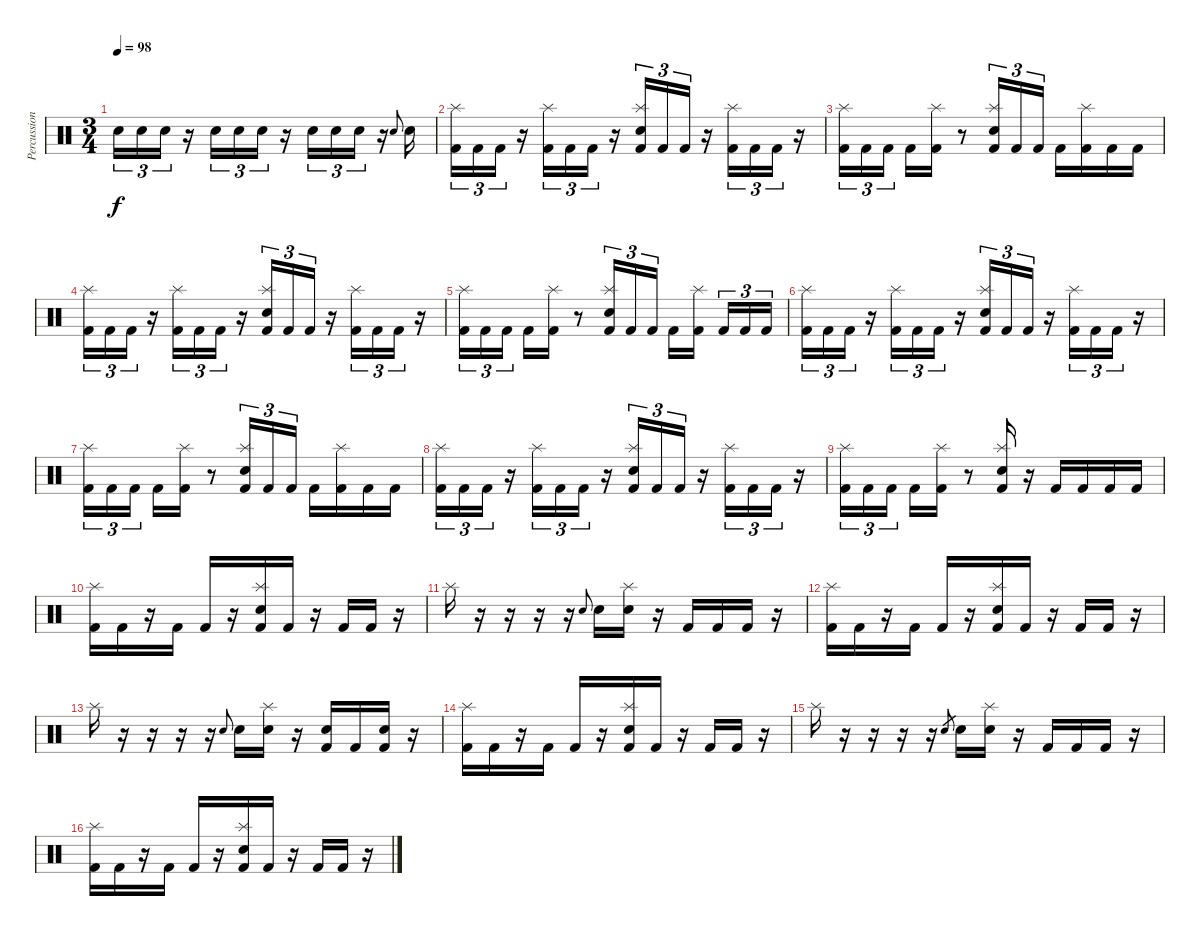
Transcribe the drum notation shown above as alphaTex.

\track ("Percussion" "Percussion") {instrument percussion}
\staff {score}
\articulation defaults
\ts (3 4)
\tempo 98
\clef neutral
\ks c "Snare (hit) 2".16{tu (3 2) dy f} "Snare (hit) 2".16{tu (3 2)} "Snare (hit) 2".16{tu (3 2)}
r.16 "Snare (hit) 2".16{tu (3 2)} "Snare (hit) 2".16{tu (3 2)} "Snare (hit) 2".16{tu (3 2)} r.16 "Snare (hit) 2".16{tu (3 2)} "Snare (hit) 2".16{tu (3 2)} "Snare (hit) 2".16{tu (3 2)} r.16 "Snare (hit) 2".8{gr onbeat} "Snare (hit) 2".16 |
("Splash (hit)" "Kick (hit) 2").16{tu (3 2)} "Kick (hit) 2".16{tu (3 2)} "Kick (hit) 2".16{tu (3 2)} r.16 ("Splash (hit)" "Kick (hit) 2").16{tu (3 2)} "Kick (hit) 2".16{tu (3 2)} "Kick (hit) 2".16{tu (3 2)} r.16 ("Splash (hit)" "Snare (hit) 2" "Kick (hit) 2").16{tu (3 2)} "Kick (hit) 2".16{tu (3 2)} "Kick (hit) 2".16{tu (3 2)} r.16 ("Splash (hit)" "Kick (hit) 2").16{tu (3 2)} "Kick (hit) 2".16{tu (3 2)} "Kick (hit) 2".16{tu (3 2)} r.16 |
("Splash (hit)" "Kick (hit) 2").16{tu (3 2)} "Kick (hit) 2".16{tu (3 2)} "Kick (hit) 2".16{tu (3 2) beam splitsecondary} "Kick (hit) 2".16 ("Splash (hit)" "Kick (hit) 2").16 r.8 ("Splash (hit)" "Snare (hit) 2" "Kick (hit) 2").16{tu (3 2)} "Kick (hit) 2".16{tu (3 2)} "Kick (hit) 2".16{tu (3 2)} "Kick (hit) 2".16 ("Splash (hit)" "Kick (hit) 2").16 "Kick (hit) 2".16 "Kick (hit) 2".16 |
("Splash (hit)" "Kick (hit) 2").16{tu (3 2)} "Kick (hit) 2".16{tu (3 2)} "Kick (hit) 2".16{tu (3 2)} r.16 ("Splash (hit)" "Kick (hit) 2").16{tu (3 2)} "Kick (hit) 2".16{tu (3 2)} "Kick (hit) 2".16{tu (3 2)} r.16 ("Splash (hit)" "Snare (hit) 2" "Kick (hit) 2").16{tu (3 2)} "Kick (hit) 2".16{tu (3 2)} "Kick (hit) 2".16{tu (3 2)} r.16 ("Splash (hit)" "Kick (hit) 2").16{tu (3 2)} "Kick (hit) 2".16{tu (3 2)} "Kick (hit) 2".16{tu (3 2)} r.16 |
("Splash (hit)" "Kick (hit) 2").16{tu (3 2)} "Kick (hit) 2".16{tu (3 2)} "Kick (hit) 2".16{tu (3 2) beam splitsecondary} "Kick (hit) 2".16 ("Splash (hit)" "Kick (hit) 2").16 r.8 ("Splash (hit)" "Snare (hit) 2" "Kick (hit) 2").16{tu (3 2)} "Kick (hit) 2".16{tu (3 2)} "Kick (hit) 2".16{tu (3 2)} "Kick (hit) 2".16 ("Splash (hit)" "Kick (hit) 2").16{beam splitsecondary} "Kick (hit) 2".16{tu (3 2)} "Kick (hit) 2".16{tu (3 2)} "Kick (hit) 2".16{tu (3 2)} |
("Splash (hit)" "Kick (hit) 2").16{tu (3 2)} "Kick (hit) 2".16{tu (3 2)} "Kick (hit) 2".16{tu (3 2)} r.16 ("Splash (hit)" "Kick (hit) 2").16{tu (3 2)} "Kick (hit) 2".16{tu (3 2)} "Kick (hit) 2".16{tu (3 2)} r.16 ("Splash (hit)" "Snare (hit) 2" "Kick (hit) 2").16{tu (3 2)} "Kick (hit) 2".16{tu (3 2)} "Kick (hit) 2".16{tu (3 2)} r.16 ("Splash (hit)" "Kick (hit) 2").16{tu (3 2)} "Kick (hit) 2".16{tu (3 2)} "Kick (hit) 2".16{tu (3 2)} r.16 |
("Splash (hit)" "Kick (hit) 2").16{tu (3 2)} "Kick (hit) 2".16{tu (3 2)} "Kick (hit) 2".16{tu (3 2) beam splitsecondary} "Kick (hit) 2".16 ("Splash (hit)" "Kick (hit) 2").16 r.8 ("Splash (hit)" "Snare (hit) 2" "Kick (hit) 2").16{tu (3 2)} "Kick (hit) 2".16{tu (3 2)} "Kick (hit) 2".16{tu (3 2)} "Kick (hit) 2".16 ("Splash (hit)" "Kick (hit) 2").16 "Kick (hit) 2".16 "Kick (hit) 2".16 |
("Splash (hit)" "Kick (hit) 2").16{tu (3 2)} "Kick (hit) 2".16{tu (3 2)} "Kick (hit) 2".16{tu (3 2)} r.16 ("Splash (hit)" "Kick (hit) 2").16{tu (3 2)} "Kick (hit) 2".16{tu (3 2)} "Kick (hit) 2".16{tu (3 2)} r.16 ("Splash (hit)" "Snare (hit) 2" "Kick (hit) 2").16{tu (3 2)} "Kick (hit) 2".16{tu (3 2)} "Kick (hit) 2".16{tu (3 2)} r.16 ("Splash (hit)" "Kick (hit) 2").16{tu (3 2)} "Kick (hit) 2".16{tu (3 2)} "Kick (hit) 2".16{tu (3 2)} r.16 |
("Splash (hit)" "Kick (hit) 2").16{tu (3 2)} "Kick (hit) 2".16{tu (3 2)} "Kick (hit) 2".16{tu (3 2) beam splitsecondary} "Kick (hit) 2".16 ("Splash (hit)" "Kick (hit) 2").16 r.8 ("Splash (hit)" "Snare (hit) 2" "Kick (hit) 2").16 r.16 "Kick (hit) 2".16 "Kick (hit) 2".16 "Kick (hit) 2".16 "Kick (hit) 2".16 |
("Splash (hit)" "Kick (hit) 2").16 "Kick (hit) 2".16 r.16 "Kick (hit) 2".16 "Kick (hit) 2".16 r.16 ("Splash (hit)" "Snare (hit) 2" "Kick (hit) 2").16 "Kick (hit) 2".16 r.16 "Kick (hit) 2".16 "Kick (hit) 2".16 r.16 |
"Splash (hit)".16 r.16 r.16 r.16 r.16 "Snare (hit) 2".8{gr onbeat} "Snare (hit) 2".16 ("Splash (hit)" "Snare (hit) 2").16 r.16 "Kick (hit) 2".16 "Kick (hit) 2".16 "Kick (hit) 2".16 r.16 |
("Splash (hit)" "Kick (hit) 2").16 "Kick (hit) 2".16 r.16 "Kick (hit) 2".16 "Kick (hit) 2".16 r.16 ("Splash (hit)" "Snare (hit) 2" "Kick (hit) 2").16 "Kick (hit) 2".16 r.16 "Kick (hit) 2".16 "Kick (hit) 2".16 r.16 |
"Splash (hit)".16 r.16 r.16 r.16 r.16 "Snare (hit) 2".8{gr onbeat} "Snare (hit) 2".16 ("Splash (hit)" "Snare (hit) 2").16 r.16 ("Snare (hit) 2" "Kick (hit) 2").16 "Kick (hit) 2".16 ("Snare (hit) 2" "Kick (hit) 2").16 r.16 |
("Splash (hit)" "Kick (hit) 2").16 "Kick (hit) 2".16 r.16 "Kick (hit) 2".16 "Kick (hit) 2".16 r.16 ("Splash (hit)" "Snare (hit) 2" "Kick (hit) 2").16 "Kick (hit) 2".16 r.16 "Kick (hit) 2".16 "Kick (hit) 2".16 r.16 |
"Splash (hit)".16 r.16 r.16 r.16 r.16 "Snare (hit) 2".8{gr} "Snare (hit) 2".16 ("Splash (hit)" "Snare (hit) 2").16 r.16 "Kick (hit) 2".16 "Kick (hit) 2".16 "Kick (hit) 2".16 r.16 |
("Splash (hit)" "Kick (hit) 2").16 "Kick (hit) 2".16 r.16 "Kick (hit) 2".16 "Kick (hit) 2".16 r.16 ("Splash (hit)" "Snare (hit) 2" "Kick (hit) 2").16 "Kick (hit) 2".16 r.16 "Kick (hit) 2".16 "Kick (hit) 2".16 r.16
